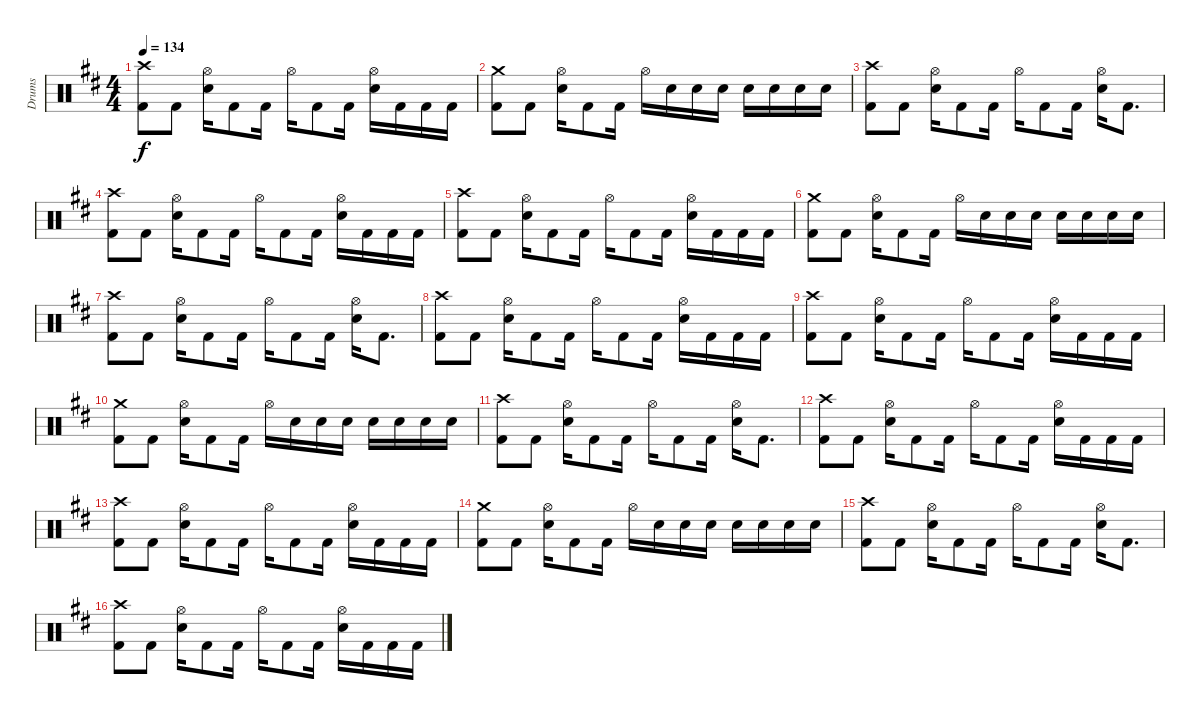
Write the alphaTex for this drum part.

\track ("Drums" "Drums") {instrument percussion}
\staff {score}
\articulation defaults
\ts (4 4)
\tempo 134
\clef neutral
\ks bminor
("Crash high (hit)" "Kick (hit) 2").8{dy f} "Kick (hit) 2".8 ("Hi-Hat (open)" "Snare (hit) 2").16 "Kick (hit) 2".8 "Kick (hit) 2".16 "Hi-Hat (open)".16 "Kick (hit) 2".8 "Kick (hit) 2".16 ("Hi-Hat (open)" "Snare (hit) 2").16 "Kick (hit) 2".16 "Kick (hit) 2".16 "Kick (hit) 2".16 |
("Crash medium (hit)" "Kick (hit) 2").8 "Kick (hit) 2".8 ("Hi-Hat (open)" "Snare (hit) 2").16 "Kick (hit) 2".8 "Kick (hit) 2".16 "Hi-Hat (open)".16 "Snare (hit) 2".16 "Snare (hit) 2".16 "Snare (hit) 2".16 "Snare (hit) 2".16 "Snare (hit) 2".16 "Snare (hit) 2".16 "Snare (hit) 2".16 |
("Crash high (hit)" "Kick (hit) 2").8 "Kick (hit) 2".8 ("Hi-Hat (open)" "Snare (hit) 2").16 "Kick (hit) 2".8 "Kick (hit) 2".16 "Hi-Hat (open)".16 "Kick (hit) 2".8 "Kick (hit) 2".16 ("Hi-Hat (open)" "Snare (hit) 2").16 "Kick (hit) 2".8{d} |
("Crash high (hit)" "Kick (hit) 2").8 "Kick (hit) 2".8 ("Hi-Hat (open)" "Snare (hit) 2").16 "Kick (hit) 2".8 "Kick (hit) 2".16 "Hi-Hat (open)".16 "Kick (hit) 2".8 "Kick (hit) 2".16 ("Hi-Hat (open)" "Snare (hit) 2").16 "Kick (hit) 2".16 "Kick (hit) 2".16 "Kick (hit) 2".16 |
("Crash high (hit)" "Kick (hit) 2").8 "Kick (hit) 2".8 ("Hi-Hat (open)" "Snare (hit) 2").16 "Kick (hit) 2".8 "Kick (hit) 2".16 "Hi-Hat (open)".16 "Kick (hit) 2".8 "Kick (hit) 2".16 ("Hi-Hat (open)" "Snare (hit) 2").16 "Kick (hit) 2".16 "Kick (hit) 2".16 "Kick (hit) 2".16 |
("Crash medium (hit)" "Kick (hit) 2").8 "Kick (hit) 2".8 ("Hi-Hat (open)" "Snare (hit) 2").16 "Kick (hit) 2".8 "Kick (hit) 2".16 "Hi-Hat (open)".16 "Snare (hit) 2".16 "Snare (hit) 2".16 "Snare (hit) 2".16 "Snare (hit) 2".16 "Snare (hit) 2".16 "Snare (hit) 2".16 "Snare (hit) 2".16 |
("Crash high (hit)" "Kick (hit) 2").8 "Kick (hit) 2".8 ("Hi-Hat (open)" "Snare (hit) 2").16 "Kick (hit) 2".8 "Kick (hit) 2".16 "Hi-Hat (open)".16 "Kick (hit) 2".8 "Kick (hit) 2".16 ("Hi-Hat (open)" "Snare (hit) 2").16 "Kick (hit) 2".8{d} |
("Crash high (hit)" "Kick (hit) 2").8 "Kick (hit) 2".8 ("Hi-Hat (open)" "Snare (hit) 2").16 "Kick (hit) 2".8 "Kick (hit) 2".16 "Hi-Hat (open)".16 "Kick (hit) 2".8 "Kick (hit) 2".16 ("Hi-Hat (open)" "Snare (hit) 2").16 "Kick (hit) 2".16 "Kick (hit) 2".16 "Kick (hit) 2".16 |
("Crash high (hit)" "Kick (hit) 2").8 "Kick (hit) 2".8 ("Hi-Hat (open)" "Snare (hit) 2").16 "Kick (hit) 2".8 "Kick (hit) 2".16 "Hi-Hat (open)".16 "Kick (hit) 2".8 "Kick (hit) 2".16 ("Hi-Hat (open)" "Snare (hit) 2").16 "Kick (hit) 2".16 "Kick (hit) 2".16 "Kick (hit) 2".16 |
("Crash medium (hit)" "Kick (hit) 2").8 "Kick (hit) 2".8 ("Hi-Hat (open)" "Snare (hit) 2").16 "Kick (hit) 2".8 "Kick (hit) 2".16 "Hi-Hat (open)".16 "Snare (hit) 2".16 "Snare (hit) 2".16 "Snare (hit) 2".16 "Snare (hit) 2".16 "Snare (hit) 2".16 "Snare (hit) 2".16 "Snare (hit) 2".16 |
("Crash high (hit)" "Kick (hit) 2").8 "Kick (hit) 2".8 ("Hi-Hat (open)" "Snare (hit) 2").16 "Kick (hit) 2".8 "Kick (hit) 2".16 "Hi-Hat (open)".16 "Kick (hit) 2".8 "Kick (hit) 2".16 ("Hi-Hat (open)" "Snare (hit) 2").16 "Kick (hit) 2".8{d} |
("Crash high (hit)" "Kick (hit) 2").8 "Kick (hit) 2".8 ("Hi-Hat (open)" "Snare (hit) 2").16 "Kick (hit) 2".8 "Kick (hit) 2".16 "Hi-Hat (open)".16 "Kick (hit) 2".8 "Kick (hit) 2".16 ("Hi-Hat (open)" "Snare (hit) 2").16 "Kick (hit) 2".16 "Kick (hit) 2".16 "Kick (hit) 2".16 |
("Crash high (hit)" "Kick (hit) 2").8 "Kick (hit) 2".8 ("Hi-Hat (open)" "Snare (hit) 2").16 "Kick (hit) 2".8 "Kick (hit) 2".16 "Hi-Hat (open)".16 "Kick (hit) 2".8 "Kick (hit) 2".16 ("Hi-Hat (open)" "Snare (hit) 2").16 "Kick (hit) 2".16 "Kick (hit) 2".16 "Kick (hit) 2".16 |
("Crash medium (hit)" "Kick (hit) 2").8 "Kick (hit) 2".8 ("Hi-Hat (open)" "Snare (hit) 2").16 "Kick (hit) 2".8 "Kick (hit) 2".16 "Hi-Hat (open)".16 "Snare (hit) 2".16 "Snare (hit) 2".16 "Snare (hit) 2".16 "Snare (hit) 2".16 "Snare (hit) 2".16 "Snare (hit) 2".16 "Snare (hit) 2".16 |
("Crash high (hit)" "Kick (hit) 2").8 "Kick (hit) 2".8 ("Hi-Hat (open)" "Snare (hit) 2").16 "Kick (hit) 2".8 "Kick (hit) 2".16 "Hi-Hat (open)".16 "Kick (hit) 2".8 "Kick (hit) 2".16 ("Hi-Hat (open)" "Snare (hit) 2").16 "Kick (hit) 2".8{d} |
("Crash high (hit)" "Kick (hit) 2").8 "Kick (hit) 2".8 ("Hi-Hat (open)" "Snare (hit) 2").16 "Kick (hit) 2".8 "Kick (hit) 2".16 "Hi-Hat (open)".16 "Kick (hit) 2".8 "Kick (hit) 2".16 ("Hi-Hat (open)" "Snare (hit) 2").16 "Kick (hit) 2".16 "Kick (hit) 2".16 "Kick (hit) 2".16
